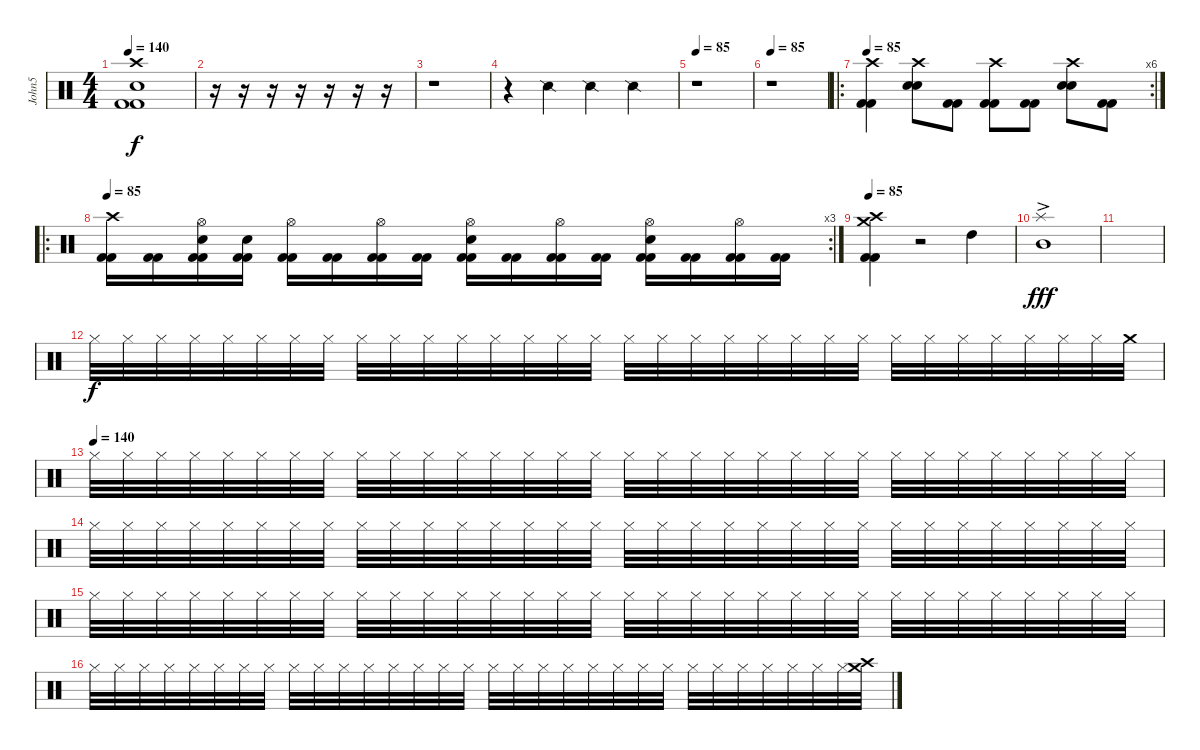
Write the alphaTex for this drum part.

\track ("John5" "John5") {instrument percussion}
\staff {score}
\articulation defaults
\ts (4 4)
\tempo 140
\clef neutral
\ks c
("Crash high (hit)" "Electric Snare (hit)" "Kick (hit) 2" "Kick (hit) 2").1{dy f} |
r.16 r.16 r.16 r.16 r.16 r.16 r.16 |
r.1 |
r.4 "Snare (side stick) 2".4 "Snare (side stick) 2".4 "Snare (side stick) 2".4 |
\tempo 85
r.1 |
\tempo 85
r.1 |
\ro
\rc 6
\tempo 85
("Crash high (hit)" "Kick (hit) 2" "Kick (hit) 2").4 ("Crash high (hit)" "Electric Snare (hit)" "Snare (hit)").8 ("Kick (hit) 2" "Kick (hit) 2").8 ("Crash high (hit)" "Kick (hit) 2" "Kick (hit) 2").8 ("Kick (hit) 2" "Kick (hit) 2").8 ("Crash high (hit)" "Electric Snare (hit)" "Snare (hit)").8 ("Kick (hit) 2" "Kick (hit) 2").8 |
\ro
\rc 3
\tempo 85
("Crash high (hit)" "Kick (hit) 2" "Kick (hit) 2").16 ("Kick (hit) 2" "Kick (hit) 2").16 ("Hi-Hat (open)" "Electric Snare (hit)" "Kick (hit) 2" "Kick (hit) 2").16 ("Electric Snare (hit)" "Kick (hit) 2" "Kick (hit) 2").16 ("Hi-Hat (open)" "Kick (hit) 2" "Kick (hit) 2").16 ("Kick (hit) 2" "Kick (hit) 2").16 ("Hi-Hat (open)" "Kick (hit) 2" "Kick (hit) 2").16 ("Kick (hit) 2" "Kick (hit) 2").16 ("Hi-Hat (open)" "Electric Snare (hit)" "Kick (hit) 2" "Kick (hit) 2").16 ("Kick (hit) 2" "Kick (hit) 2").16 ("Hi-Hat (open)" "Kick (hit) 2" "Kick (hit) 2").16 ("Kick (hit) 2" "Kick (hit) 2").16 ("Hi-Hat (open)" "Electric Snare (hit)" "Kick (hit) 2" "Kick (hit) 2").16 ("Kick (hit) 2" "Kick (hit) 2").16 ("Hi-Hat (open)" "Kick (hit) 2" "Kick (hit) 2").16 ("Kick (hit) 2" "Kick (hit) 2").16 |
\tempo 85
("Crash medium (hit)" "Crash high (hit)" "Kick (hit) 2" "Kick (hit) 2").4 r.2 "High Tom (hit)".4 |
("Splash (hit)"{be (custom 0 0 30 4 58 8 60 9) ac} "Mid Tom (hit)").1{dy fff} |
|
"Hi-Hat (closed)".32{dy f} "Hi-Hat (closed)".32 "Hi-Hat (closed)".32 "Hi-Hat (closed)".32 "Hi-Hat (closed)".32 "Hi-Hat (closed)".32 "Hi-Hat (closed)".32 "Hi-Hat (closed)".32 "Hi-Hat (closed)".32 "Hi-Hat (closed)".32 "Hi-Hat (closed)".32 "Hi-Hat (closed)".32 "Hi-Hat (closed)".32 "Hi-Hat (closed)".32 "Hi-Hat (closed)".32 "Hi-Hat (closed)".32 "Hi-Hat (closed)".32 "Hi-Hat (closed)".32 "Hi-Hat (closed)".32 "Hi-Hat (closed)".32 "Hi-Hat (closed)".32 "Hi-Hat (closed)".32 "Hi-Hat (closed)".32 "Hi-Hat (closed)".32 "Hi-Hat (closed)".32 "Hi-Hat (closed)".32 "Hi-Hat (closed)".32 "Hi-Hat (closed)".32 "Hi-Hat (closed)".32 "Hi-Hat (closed)".32 "Hi-Hat (closed)".32 "Crash medium (hit)".32 |
\tempo (140)
"Hi-Hat (closed)".32 "Hi-Hat (closed)".32 "Hi-Hat (closed)".32 "Hi-Hat (closed)".32 "Hi-Hat (closed)".32 "Hi-Hat (closed)".32 "Hi-Hat (closed)".32 "Hi-Hat (closed)".32 "Hi-Hat (closed)".32 "Hi-Hat (closed)".32 "Hi-Hat (closed)".32 "Hi-Hat (closed)".32 "Hi-Hat (closed)".32 "Hi-Hat (closed)".32 "Hi-Hat (closed)".32 "Hi-Hat (closed)".32 "Hi-Hat (closed)".32 "Hi-Hat (closed)".32 "Hi-Hat (closed)".32 "Hi-Hat (closed)".32 "Hi-Hat (closed)".32 "Hi-Hat (closed)".32 "Hi-Hat (closed)".32 "Hi-Hat (closed)".32 "Hi-Hat (closed)".32 "Hi-Hat (closed)".32 "Hi-Hat (closed)".32 "Hi-Hat (closed)".32 "Hi-Hat (closed)".32 "Hi-Hat (closed)".32 "Hi-Hat (closed)".32 "Hi-Hat (closed)".32 |
"Hi-Hat (closed)".32 "Hi-Hat (closed)".32 "Hi-Hat (closed)".32 "Hi-Hat (closed)".32 "Hi-Hat (closed)".32 "Hi-Hat (closed)".32 "Hi-Hat (closed)".32 "Hi-Hat (closed)".32 "Hi-Hat (closed)".32 "Hi-Hat (closed)".32 "Hi-Hat (closed)".32 "Hi-Hat (closed)".32 "Hi-Hat (closed)".32 "Hi-Hat (closed)".32 "Hi-Hat (closed)".32 "Hi-Hat (closed)".32 "Hi-Hat (closed)".32 "Hi-Hat (closed)".32 "Hi-Hat (closed)".32 "Hi-Hat (closed)".32 "Hi-Hat (closed)".32 "Hi-Hat (closed)".32 "Hi-Hat (closed)".32 "Hi-Hat (closed)".32 "Hi-Hat (closed)".32 "Hi-Hat (closed)".32 "Hi-Hat (closed)".32 "Hi-Hat (closed)".32 "Hi-Hat (closed)".32 "Hi-Hat (closed)".32 "Hi-Hat (closed)".32 "Hi-Hat (closed)".32 |
"Hi-Hat (closed)".32 "Hi-Hat (closed)".32 "Hi-Hat (closed)".32 "Hi-Hat (closed)".32 "Hi-Hat (closed)".32 "Hi-Hat (closed)".32 "Hi-Hat (closed)".32 "Hi-Hat (closed)".32 "Hi-Hat (closed)".32 "Hi-Hat (closed)".32 "Hi-Hat (closed)".32 "Hi-Hat (closed)".32 "Hi-Hat (closed)".32 "Hi-Hat (closed)".32 "Hi-Hat (closed)".32 "Hi-Hat (closed)".32 "Hi-Hat (closed)".32 "Hi-Hat (closed)".32 "Hi-Hat (closed)".32 "Hi-Hat (closed)".32 "Hi-Hat (closed)".32 "Hi-Hat (closed)".32 "Hi-Hat (closed)".32 "Hi-Hat (closed)".32 "Hi-Hat (closed)".32 "Hi-Hat (closed)".32 "Hi-Hat (closed)".32 "Hi-Hat (closed)".32 "Hi-Hat (closed)".32 "Hi-Hat (closed)".32 "Hi-Hat (closed)".32 "Hi-Hat (closed)".32 |
"Hi-Hat (closed)".32 "Hi-Hat (closed)".32 "Hi-Hat (closed)".32 "Hi-Hat (closed)".32 "Hi-Hat (closed)".32 "Hi-Hat (closed)".32 "Hi-Hat (closed)".32 "Hi-Hat (closed)".32 "Hi-Hat (closed)".32 "Hi-Hat (closed)".32 "Hi-Hat (closed)".32 "Hi-Hat (closed)".32 "Hi-Hat (closed)".32 "Hi-Hat (closed)".32 "Hi-Hat (closed)".32 "Hi-Hat (closed)".32 "Hi-Hat (closed)".32 "Hi-Hat (closed)".32 "Hi-Hat (closed)".32 "Hi-Hat (closed)".32 "Hi-Hat (closed)".32 "Hi-Hat (closed)".32 "Hi-Hat (closed)".32 "Hi-Hat (closed)".32 "Hi-Hat (closed)".32 "Hi-Hat (closed)".32 "Hi-Hat (closed)".32 "Hi-Hat (closed)".32 "Hi-Hat (closed)".32 "Hi-Hat (closed)".32 "Hi-Hat (closed)".32 ("Crash medium (hit)" "Crash high (hit)").32
